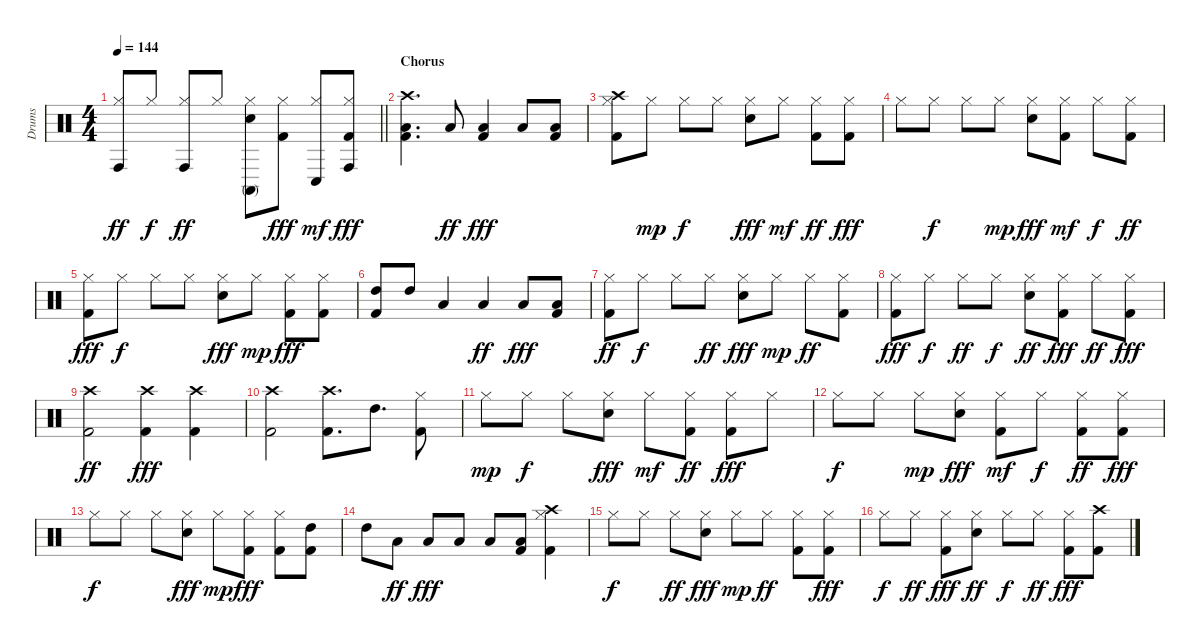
\track ("Drums" "Drums") {instrument percussion}
\staff {score}
\articulation defaults
\ts (4 4)
\tempo 144
\clef neutral
\barLineRight lightlight
\ks c
("Conga high (hit)" "Hi-Hat (closed)").8{dy ff} "Hi-Hat (closed)".8{dy f} ("Conga high (hit)" "Hi-Hat (closed)").8{dy ff} "Hi-Hat (closed)".8 ("Conga high (mute)" "Snare (hit) 2" "Hi-Hat (closed)").8 ("Kick (hit) 2" "Hi-Hat (closed)").8{dy fff} ("Conga low (hit)" "Hi-Hat (closed)").8{dy mf} ("Conga high (hit)" "Kick (hit) 2" "Hi-Hat (closed)").8{dy fff} |
\section ("" "Chorus")
("Low Floor Tom (hit)" "Kick (hit) 2" "Crash high (hit)").4{d} "Low Tom (hit)".8{dy ff} ("Low Tom (hit)" "Kick (hit) 2").4{dy fff} "Low Floor Tom (hit)".8 ("Low Floor Tom (hit)" "Kick (hit) 2").8 |
("Crash high (hit)" "Kick (hit) 2" "Hi-Hat (closed)").8 "Hi-Hat (closed)".8{dy mp} "Hi-Hat (closed)".8{dy f} "Hi-Hat (closed)".8 ("Snare (hit) 2" "Hi-Hat (closed)").8{dy fff} "Hi-Hat (closed)".8{dy mf} ("Kick (hit) 2" "Hi-Hat (closed)").8{dy ff} ("Kick (hit) 2" "Hi-Hat (closed)").8{dy fff} |
"Hi-Hat (closed)".8 "Hi-Hat (closed)".8{dy f} "Hi-Hat (closed)".8 "Hi-Hat (closed)".8{dy mp} ("Snare (hit) 2" "Hi-Hat (closed)").8{dy fff} ("Kick (hit) 2" "Hi-Hat (closed)").8{dy mf} "Hi-Hat (closed)".8{dy f} ("Kick (hit) 2" "Hi-Hat (closed)").8{dy ff} |
("Kick (hit) 2" "Hi-Hat (closed)").8{dy fff} "Hi-Hat (closed)".8{dy f} "Hi-Hat (closed)".8 "Hi-Hat (closed)".8 ("Snare (hit) 2" "Hi-Hat (closed)").8{dy fff} "Hi-Hat (closed)".8{dy mp} ("Kick (hit) 2" "Hi-Hat (closed)").8{dy fff} ("Kick (hit) 2" "Hi-Hat (closed)").8 |
("High Tom (hit)" "Kick (hit) 2").8 "High Tom (hit)".8 "Low Tom (hit)".4 "Low Tom (hit)".4{dy ff} "Low Floor Tom (hit)".8{dy fff} ("Low Floor Tom (hit)" "Kick (hit) 2").8 |
("Kick (hit) 2" "Hi-Hat (closed)").8{dy ff} "Hi-Hat (closed)".8{dy f} "Hi-Hat (closed)".8 "Hi-Hat (closed)".8{dy ff} ("Snare (hit) 2" "Hi-Hat (closed)").8{dy fff} "Hi-Hat (closed)".8{dy mp} "Hi-Hat (closed)".8{dy ff} ("Kick (hit) 2" "Hi-Hat (closed)").8 |
("Kick (hit) 2" "Hi-Hat (closed)").8{dy fff} "Hi-Hat (closed)".8{dy f} "Hi-Hat (closed)".8{dy ff} "Hi-Hat (closed)".8{dy f} ("Snare (hit) 2" "Hi-Hat (closed)").8{dy ff} ("Kick (hit) 2" "Hi-Hat (closed)").8{dy fff} "Hi-Hat (closed)".8{dy ff} ("Kick (hit) 2" "Hi-Hat (closed)").8{dy fff} |
("Kick (hit) 2" "Crash high (hit)").2{dy ff} ("Crash high (hit)" "Kick (hit) 2").4{dy fff} ("Crash high (hit)" "Kick (hit) 2").4 |
("Crash high (hit)" "Kick (hit) 2").2 ("Crash high (hit)" "Kick (hit) 2").8{d} "High Tom (hit)".8{d} ("Kick (hit) 2" "Hi-Hat (closed)").8 |
"Hi-Hat (closed)".8{dy mp} "Hi-Hat (closed)".8{dy f} "Hi-Hat (closed)".8 ("Snare (hit) 2" "Hi-Hat (closed)").8{dy fff} "Hi-Hat (closed)".8{dy mf} ("Kick (hit) 2" "Hi-Hat (closed)").8{dy ff} ("Kick (hit) 2" "Hi-Hat (closed)").8{dy fff} "Hi-Hat (closed)".8 |
"Hi-Hat (closed)".8{dy f} "Hi-Hat (closed)".8 "Hi-Hat (closed)".8{dy mp} ("Snare (hit) 2" "Hi-Hat (closed)").8{dy fff} ("Kick (hit) 2" "Hi-Hat (closed)").8{dy mf} "Hi-Hat (closed)".8{dy f} ("Kick (hit) 2" "Hi-Hat (closed)").8{dy ff} ("Kick (hit) 2" "Hi-Hat (closed)").8{dy fff} |
"Hi-Hat (closed)".8{dy f} "Hi-Hat (closed)".8 "Hi-Hat (closed)".8 ("Snare (hit) 2" "Hi-Hat (closed)").8{dy fff} "Hi-Hat (closed)".8{dy mp} ("Kick (hit) 2" "Hi-Hat (closed)").8{dy fff} ("Kick (hit) 2" "Hi-Hat (closed)").8 ("High Tom (hit)" "Kick (hit) 2").8 |
"High Tom (hit)".8 "Low Tom (hit)".8{dy ff} "Low Floor Tom (hit)".8{dy fff} "Low Floor Tom (hit)".8 "Low Floor Tom (hit)".8 ("Low Floor Tom (hit)" "Kick (hit) 2").8 ("Crash high (hit)" "Kick (hit) 2" "Hi-Hat (closed)").4 |
"Hi-Hat (closed)".8{dy f} "Hi-Hat (closed)".8 "Hi-Hat (closed)".8{dy ff} ("Snare (hit) 2" "Hi-Hat (closed)").8{dy fff} "Hi-Hat (closed)".8{dy mp} "Hi-Hat (closed)".8{dy ff} ("Kick (hit) 2" "Hi-Hat (closed)").8 ("Kick (hit) 2" "Hi-Hat (closed)").8{dy fff} |
"Hi-Hat (closed)".8{dy f} "Hi-Hat (closed)".8{dy ff} ("Kick (hit) 2" "Hi-Hat (closed)").8{dy fff} ("Snare (hit) 2" "Hi-Hat (closed)").8{dy ff} "Hi-Hat (closed)".8{dy f} "Hi-Hat (closed)".8{dy ff} ("Kick (hit) 2" "Hi-Hat (closed)").8{dy fff} ("Crash high (hit)" "Kick (hit) 2").8
